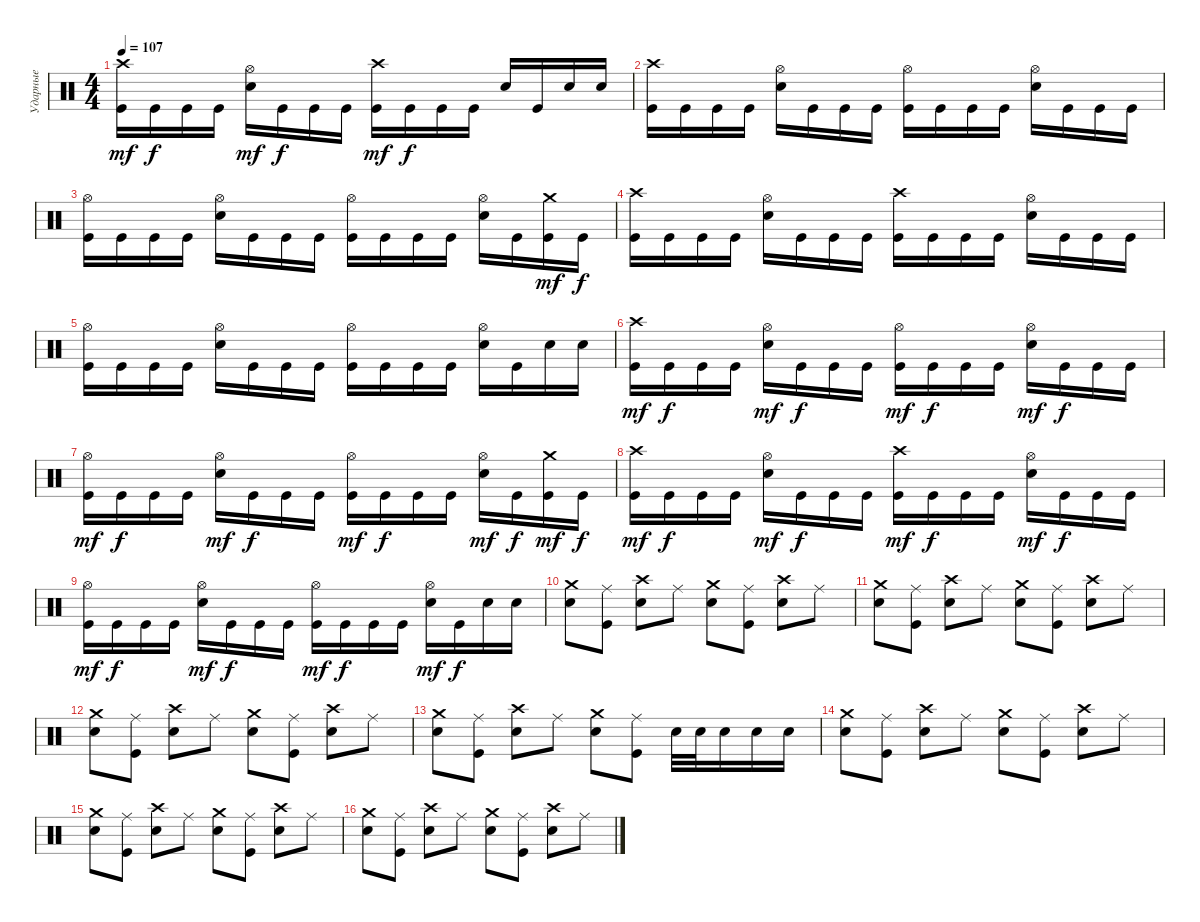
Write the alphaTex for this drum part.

\track ("Ударные" "Ударные") {instrument percussion}
\staff {score}
\articulation defaults
\ts (4 4)
\tempo 107
\clef neutral
\ks c
("Crash high (hit)" "Kick (hit)").16{dy mf} "Kick (hit)".16{dy f} "Kick (hit)".16 "Kick (hit)".16 ("Hi-Hat (open)" "Electric Snare (hit)").16{dy mf} "Kick (hit)".16{dy f} "Kick (hit)".16 "Kick (hit)".16 ("Crash high (hit)" "Kick (hit)").16{dy mf} "Kick (hit)".16{dy f} "Kick (hit)".16 "Kick (hit)".16 "Electric Snare (hit)".16 "Kick (hit)".16 "Electric Snare (hit)".16 "Electric Snare (hit)".16 |
("Crash high (hit)" "Kick (hit)").16 "Kick (hit)".16 "Kick (hit)".16 "Kick (hit)".16 ("Hi-Hat (open)" "Electric Snare (hit)").16 "Kick (hit)".16 "Kick (hit)".16 "Kick (hit)".16 ("Hi-Hat (open)" "Kick (hit)").16 "Kick (hit)".16 "Kick (hit)".16 "Kick (hit)".16 ("Hi-Hat (open)" "Electric Snare (hit)").16 "Kick (hit)".16 "Kick (hit)".16 "Kick (hit)".16 |
("Hi-Hat (open)" "Kick (hit)").16 "Kick (hit)".16 "Kick (hit)".16 "Kick (hit)".16 ("Hi-Hat (open)" "Electric Snare (hit)").16 "Kick (hit)".16 "Kick (hit)".16 "Kick (hit)".16 ("Hi-Hat (open)" "Kick (hit)").16 "Kick (hit)".16 "Kick (hit)".16 "Kick (hit)".16 ("Hi-Hat (open)" "Electric Snare (hit)").16 "Kick (hit)".16 ("Crash medium (hit)" "Kick (hit)").16{dy mf} "Kick (hit)".16{dy f} |
("Crash high (hit)" "Kick (hit)").16 "Kick (hit)".16 "Kick (hit)".16 "Kick (hit)".16 ("Hi-Hat (open)" "Electric Snare (hit)").16 "Kick (hit)".16 "Kick (hit)".16 "Kick (hit)".16 ("Crash high (hit)" "Kick (hit)").16 "Kick (hit)".16 "Kick (hit)".16 "Kick (hit)".16 ("Hi-Hat (open)" "Electric Snare (hit)").16 "Kick (hit)".16 "Kick (hit)".16 "Kick (hit)".16 |
("Hi-Hat (open)" "Kick (hit)").16 "Kick (hit)".16 "Kick (hit)".16 "Kick (hit)".16 ("Hi-Hat (open)" "Electric Snare (hit)").16 "Kick (hit)".16 "Kick (hit)".16 "Kick (hit)".16 ("Hi-Hat (open)" "Kick (hit)").16 "Kick (hit)".16 "Kick (hit)".16 "Kick (hit)".16 ("Hi-Hat (open)" "Electric Snare (hit)").16 "Kick (hit)".16 "Electric Snare (hit)".16 "Electric Snare (hit)".16 |
("Crash high (hit)" "Kick (hit)").16{dy mf} "Kick (hit)".16{dy f} "Kick (hit)".16 "Kick (hit)".16 ("Hi-Hat (open)" "Electric Snare (hit)").16{dy mf} "Kick (hit)".16{dy f} "Kick (hit)".16 "Kick (hit)".16 ("Hi-Hat (open)" "Kick (hit)").16{dy mf} "Kick (hit)".16{dy f} "Kick (hit)".16 "Kick (hit)".16 ("Hi-Hat (open)" "Electric Snare (hit)").16{dy mf} "Kick (hit)".16{dy f} "Kick (hit)".16 "Kick (hit)".16 |
("Hi-Hat (open)" "Kick (hit)").16{dy mf} "Kick (hit)".16{dy f} "Kick (hit)".16 "Kick (hit)".16 ("Hi-Hat (open)" "Electric Snare (hit)").16{dy mf} "Kick (hit)".16{dy f} "Kick (hit)".16 "Kick (hit)".16 ("Hi-Hat (open)" "Kick (hit)").16{dy mf} "Kick (hit)".16{dy f} "Kick (hit)".16 "Kick (hit)".16 ("Hi-Hat (open)" "Electric Snare (hit)").16{dy mf} "Kick (hit)".16{dy f} ("Crash medium (hit)" "Kick (hit)").16{dy mf} "Kick (hit)".16{dy f} |
("Crash high (hit)" "Kick (hit)").16{dy mf} "Kick (hit)".16{dy f} "Kick (hit)".16 "Kick (hit)".16 ("Hi-Hat (open)" "Electric Snare (hit)").16{dy mf} "Kick (hit)".16{dy f} "Kick (hit)".16 "Kick (hit)".16 ("Crash high (hit)" "Kick (hit)").16{dy mf} "Kick (hit)".16{dy f} "Kick (hit)".16 "Kick (hit)".16 ("Hi-Hat (open)" "Electric Snare (hit)").16{dy mf} "Kick (hit)".16{dy f} "Kick (hit)".16 "Kick (hit)".16 |
("Hi-Hat (open)" "Kick (hit)").16{dy mf} "Kick (hit)".16{dy f} "Kick (hit)".16 "Kick (hit)".16 ("Hi-Hat (open)" "Electric Snare (hit)").16{dy mf} "Kick (hit)".16{dy f} "Kick (hit)".16 "Kick (hit)".16 ("Hi-Hat (open)" "Kick (hit)").16{dy mf} "Kick (hit)".16{dy f} "Kick (hit)".16 "Kick (hit)".16 ("Hi-Hat (open)" "Electric Snare (hit)").16{dy mf} "Kick (hit)".16{dy f} "Electric Snare (hit)".16 "Electric Snare (hit)".16 |
("Crash medium (hit)" "Electric Snare (hit)").8 ("Ride (middle)" "Kick (hit)").8 ("Crash high (hit)" "Electric Snare (hit)").8 "Ride (middle)".8 ("Crash medium (hit)" "Electric Snare (hit)").8 ("Kick (hit)" "Ride (middle)").8 ("Crash high (hit)" "Electric Snare (hit)").8 "Ride (middle)".8 |
("Crash medium (hit)" "Electric Snare (hit)").8 ("Ride (middle)" "Kick (hit)").8 ("Crash high (hit)" "Electric Snare (hit)").8 "Ride (middle)".8 ("Crash medium (hit)" "Electric Snare (hit)").8 ("Kick (hit)" "Ride (middle)").8 ("Crash high (hit)" "Electric Snare (hit)").8 "Ride (middle)".8 |
("Crash medium (hit)" "Electric Snare (hit)").8 ("Ride (middle)" "Kick (hit)").8 ("Crash high (hit)" "Electric Snare (hit)").8 "Ride (middle)".8 ("Crash medium (hit)" "Electric Snare (hit)").8 ("Kick (hit)" "Ride (middle)").8 ("Crash high (hit)" "Electric Snare (hit)").8 "Ride (middle)".8 |
("Crash medium (hit)" "Electric Snare (hit)").8 ("Ride (middle)" "Kick (hit)").8 ("Crash high (hit)" "Electric Snare (hit)").8 "Ride (middle)".8 ("Crash medium (hit)" "Electric Snare (hit)").8 ("Kick (hit)" "Ride (middle)").8 "Electric Snare (hit)".32 "Electric Snare (hit)".32 "Electric Snare (hit)".16 "Electric Snare (hit)".16 "Electric Snare (hit)".16 |
("Crash medium (hit)" "Electric Snare (hit)").8 ("Ride (middle)" "Kick (hit)").8 ("Crash high (hit)" "Electric Snare (hit)").8 "Ride (middle)".8 ("Crash medium (hit)" "Electric Snare (hit)").8 ("Kick (hit)" "Ride (middle)").8 ("Crash high (hit)" "Electric Snare (hit)").8 "Ride (middle)".8 |
("Crash medium (hit)" "Electric Snare (hit)").8 ("Ride (middle)" "Kick (hit)").8 ("Crash high (hit)" "Electric Snare (hit)").8 "Ride (middle)".8 ("Crash medium (hit)" "Electric Snare (hit)").8 ("Kick (hit)" "Ride (middle)").8 ("Crash high (hit)" "Electric Snare (hit)").8 "Ride (middle)".8 |
("Crash medium (hit)" "Electric Snare (hit)").8 ("Ride (middle)" "Kick (hit)").8 ("Crash high (hit)" "Electric Snare (hit)").8 "Ride (middle)".8 ("Crash medium (hit)" "Electric Snare (hit)").8 ("Kick (hit)" "Ride (middle)").8 ("Crash high (hit)" "Electric Snare (hit)").8 "Ride (middle)".8
